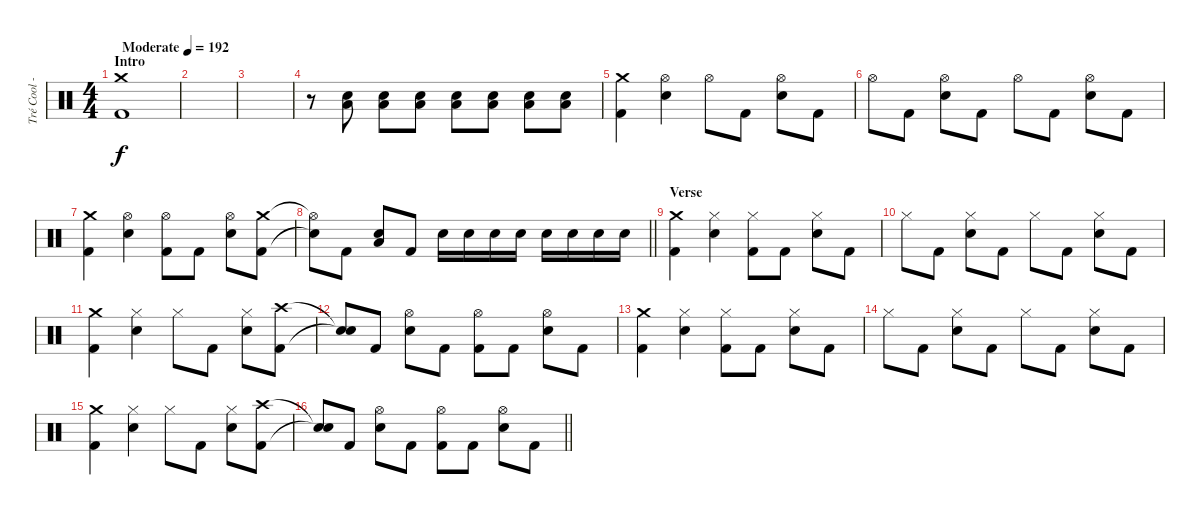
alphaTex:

\track ("Tré Cool - Drums" "Tré Cool -") {instrument percussion}
\staff {score}
\articulation defaults
\ts (4 4)
\section ("" "Intro")
\tempo (192 "Moderate")
\clef neutral
\ks c
("Crash medium (hit)" "Kick (hit) 2").1{dy f} |
|
|
r.8 ("Low Floor Tom (hit)" "Electric Snare (hit)").8 ("Low Floor Tom (hit)" "Electric Snare (hit)").8 ("Low Floor Tom (hit)" "Electric Snare (hit)").8 ("Low Floor Tom (hit)" "Electric Snare (hit)").8 ("Low Floor Tom (hit)" "Electric Snare (hit)").8 ("Low Floor Tom (hit)" "Electric Snare (hit)").8 ("Low Floor Tom (hit)" "Electric Snare (hit)").8 |
("Crash medium (hit)" "Kick (hit) 2").4 ("Hi-Hat (open)" "Electric Snare (hit)").4 "Hi-Hat (open)".8 "Kick (hit) 2".8 ("Hi-Hat (open)" "Electric Snare (hit)").8 "Kick (hit) 2".8 |
"Hi-Hat (open)".8 "Kick (hit) 2".8 ("Hi-Hat (open)" "Electric Snare (hit)").8 "Kick (hit) 2".8 "Hi-Hat (open)".8 "Kick (hit) 2".8 ("Hi-Hat (open)" "Electric Snare (hit)").8 "Kick (hit) 2".8 |
("Crash medium (hit)" "Kick (hit) 2").4 ("Hi-Hat (open)" "Electric Snare (hit)").4 ("Hi-Hat (open)" "Kick (hit) 2").8 "Kick (hit) 2".8 ("Hi-Hat (open)" "Electric Snare (hit)").8 ("Crash medium (hit)" "Kick (hit) 2").8 |
\barLineRight lightlight
("Hi-Hat (open)"{t} "Snare (hit)"{t}).8 "Kick (hit) 2".8 ("Low Floor Tom (hit)" "Electric Snare (hit)").8 "Kick (hit) 2".8 "Electric Snare (hit)".16 "Electric Snare (hit)".16 "Electric Snare (hit)".16 "Electric Snare (hit)".16 "Electric Snare (hit)".16 "Electric Snare (hit)".16 "Electric Snare (hit)".16 "Electric Snare (hit)".16 |
\section ("" "Verse")
("Crash medium (hit)" "Kick (hit) 2").4 ("Hi-Hat (closed)" "Electric Snare (hit)").4 ("Hi-Hat (closed)" "Kick (hit) 2").8 "Kick (hit) 2".8 ("Hi-Hat (closed)" "Electric Snare (hit)").8 "Kick (hit) 2".8 |
"Hi-Hat (closed)".8 "Kick (hit) 2".8 ("Hi-Hat (closed)" "Electric Snare (hit)").8 "Kick (hit) 2".8 "Hi-Hat (closed)".8 "Kick (hit) 2".8 ("Hi-Hat (closed)" "Electric Snare (hit)").8 "Kick (hit) 2".8 |
("Crash medium (hit)" "Kick (hit) 2").4 ("Hi-Hat (closed)" "Electric Snare (hit)").4 "Hi-Hat (closed)".8 "Kick (hit) 2".8 ("Hi-Hat (closed)" "Electric Snare (hit)").8 ("Crash high (hit)" "Kick (hit) 2").8 |
("Snare (hit)"{t} "Snare (hit)"{t}).8 "Kick (hit) 2".8 ("Hi-Hat (open)" "Electric Snare (hit)").8 "Kick (hit) 2".8 ("Hi-Hat (open)" "Kick (hit) 2").8 "Kick (hit) 2".8 ("Hi-Hat (open)" "Electric Snare (hit)").8 "Kick (hit) 2".8 |
("Crash medium (hit)" "Kick (hit) 2").4 ("Hi-Hat (closed)" "Electric Snare (hit)").4 ("Hi-Hat (closed)" "Kick (hit) 2").8 "Kick (hit) 2".8 ("Hi-Hat (closed)" "Electric Snare (hit)").8 "Kick (hit) 2".8 |
"Hi-Hat (closed)".8 "Kick (hit) 2".8 ("Hi-Hat (closed)" "Electric Snare (hit)").8 "Kick (hit) 2".8 "Hi-Hat (closed)".8 "Kick (hit) 2".8 ("Hi-Hat (closed)" "Electric Snare (hit)").8 "Kick (hit) 2".8 |
("Crash medium (hit)" "Kick (hit) 2").4 ("Hi-Hat (closed)" "Electric Snare (hit)").4 "Hi-Hat (closed)".8 "Kick (hit) 2".8 ("Hi-Hat (closed)" "Electric Snare (hit)").8 ("Crash high (hit)" "Kick (hit) 2").8 |
\barLineRight lightlight
("Snare (hit)"{t} "Snare (hit)"{t}).8 "Kick (hit) 2".8 ("Hi-Hat (open)" "Electric Snare (hit)").8 "Kick (hit) 2".8 ("Hi-Hat (open)" "Kick (hit) 2").8 "Kick (hit) 2".8 ("Hi-Hat (open)" "Electric Snare (hit)").8 "Kick (hit) 2".8
